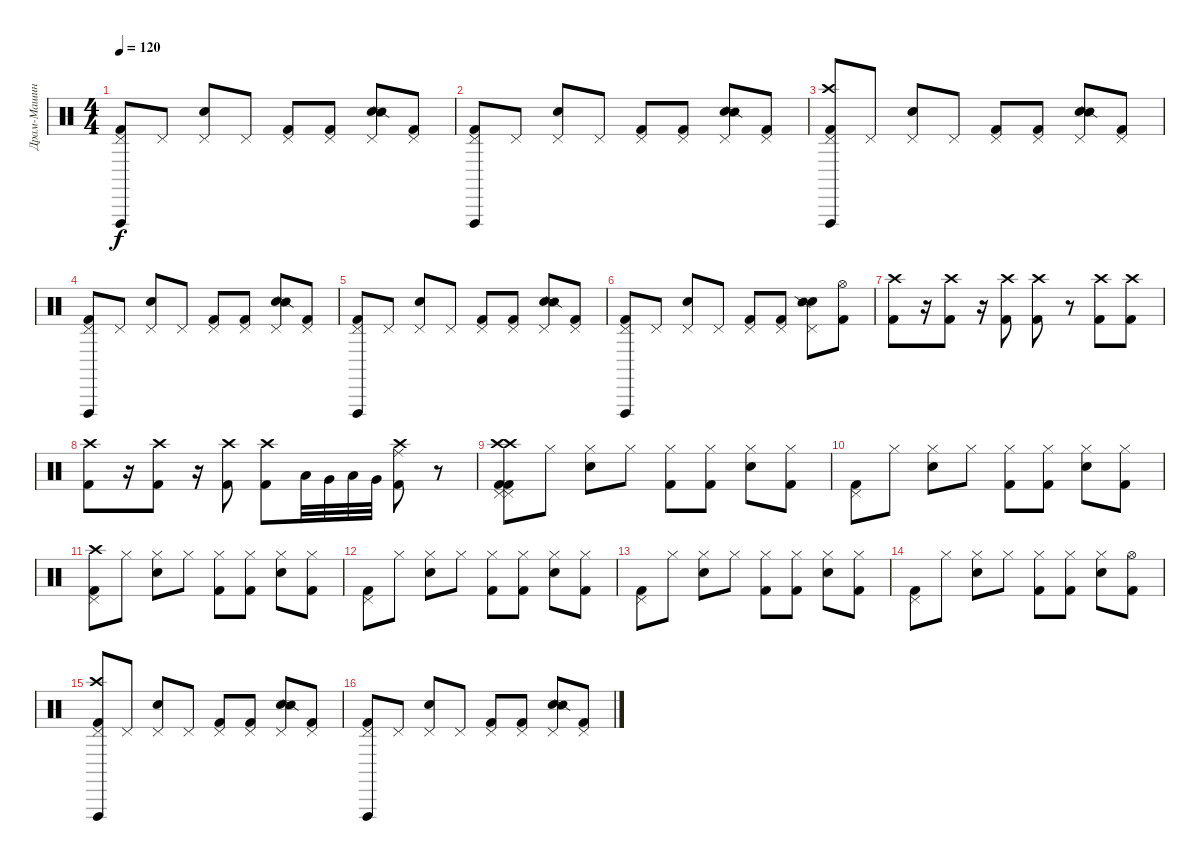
\track ("Драм-Машина" "Драм-Машин") {instrument percussion}
\staff {score}
\articulation defaults
\ts (4 4)
\tempo 120
\clef neutral
\ks c
("Vibraslap (hit)" "Kick (hit) 2" "Pedal Hi-Hat (hit)").8{dy f} "Pedal Hi-Hat (hit)".8 ("Electric Snare (hit)" "Pedal Hi-Hat (hit)").8 "Pedal Hi-Hat (hit)".8 ("Kick (hit) 2" "Pedal Hi-Hat (hit)").8 ("Kick (hit) 2" "Pedal Hi-Hat (hit)").8 ("Electric Snare (hit)" "Snare (side stick) 2" "Pedal Hi-Hat (hit)").8 ("Kick (hit) 2" "Pedal Hi-Hat (hit)").8 |
("Vibraslap (hit)" "Kick (hit) 2" "Pedal Hi-Hat (hit)").8 "Pedal Hi-Hat (hit)".8 ("Electric Snare (hit)" "Pedal Hi-Hat (hit)").8 "Pedal Hi-Hat (hit)".8 ("Kick (hit) 2" "Pedal Hi-Hat (hit)").8 ("Kick (hit) 2" "Pedal Hi-Hat (hit)").8 ("Electric Snare (hit)" "Snare (side stick) 2" "Pedal Hi-Hat (hit)").8 ("Kick (hit) 2" "Pedal Hi-Hat (hit)").8 |
("Crash high (hit)" "Vibraslap (hit)" "Kick (hit) 2" "Pedal Hi-Hat (hit)").8 "Pedal Hi-Hat (hit)".8 ("Electric Snare (hit)" "Pedal Hi-Hat (hit)").8 "Pedal Hi-Hat (hit)".8 ("Kick (hit) 2" "Pedal Hi-Hat (hit)").8 ("Kick (hit) 2" "Pedal Hi-Hat (hit)").8 ("Electric Snare (hit)" "Snare (side stick) 2" "Pedal Hi-Hat (hit)").8 ("Kick (hit) 2" "Pedal Hi-Hat (hit)").8 |
("Vibraslap (hit)" "Kick (hit) 2" "Pedal Hi-Hat (hit)").8 "Pedal Hi-Hat (hit)".8 ("Electric Snare (hit)" "Pedal Hi-Hat (hit)").8 "Pedal Hi-Hat (hit)".8 ("Kick (hit) 2" "Pedal Hi-Hat (hit)").8 ("Kick (hit) 2" "Pedal Hi-Hat (hit)").8 ("Electric Snare (hit)" "Snare (side stick) 2" "Pedal Hi-Hat (hit)").8 ("Kick (hit) 2" "Pedal Hi-Hat (hit)").8 |
("Vibraslap (hit)" "Kick (hit) 2" "Pedal Hi-Hat (hit)").8 "Pedal Hi-Hat (hit)".8 ("Electric Snare (hit)" "Pedal Hi-Hat (hit)").8 "Pedal Hi-Hat (hit)".8 ("Kick (hit) 2" "Pedal Hi-Hat (hit)").8 ("Kick (hit) 2" "Pedal Hi-Hat (hit)").8 ("Electric Snare (hit)" "Snare (side stick) 2" "Pedal Hi-Hat (hit)").8 ("Kick (hit) 2" "Pedal Hi-Hat (hit)").8 |
("Vibraslap (hit)" "Kick (hit) 2" "Pedal Hi-Hat (hit)").8 "Pedal Hi-Hat (hit)".8 ("Electric Snare (hit)" "Pedal Hi-Hat (hit)").8 "Pedal Hi-Hat (hit)".8 ("Kick (hit) 2" "Pedal Hi-Hat (hit)").8 ("Kick (hit) 2" "Pedal Hi-Hat (hit)").8 ("Electric Snare (hit)" "Snare (side stick) 2" "Pedal Hi-Hat (hit)").8 ("Kick (hit) 2" "Hi-Hat (open)").8 |
("Crash high (hit)" "Kick (hit) 2").8 r.16 ("Crash high (hit)" "Kick (hit) 2").8 r.16 ("Crash high (hit)" "Kick (hit) 2").8 ("Crash high (hit)" "Kick (hit) 2").8 r.8 ("Crash high (hit)" "Kick (hit) 2").8 ("Crash high (hit)" "Kick (hit) 2").8 |
("Crash high (hit)" "Kick (hit) 2").8 r.16 ("Crash high (hit)" "Kick (hit) 2").8 r.16 ("Crash high (hit)" "Kick (hit) 2").8 ("Crash high (hit)" "Kick (hit) 2").8 "Low Floor Tom (hit)".32 "Very Low Tom (hit)".32 "Low Floor Tom (hit)".32 "Very Low Tom (hit)".32 ("Ride (middle)" "Crash high (hit)" "Kick (hit) 2").8 r.8 |
("Crash high (hit)" "Crash high (hit)" "Kick (hit) 2" "Pedal Hi-Hat (hit)" "Kick (hit) 2" "Pedal Hi-Hat (hit)").8 "Hi-Hat (closed)".8 ("Electric Snare (hit)" "Hi-Hat (closed)").8 "Hi-Hat (closed)".8 ("Kick (hit) 2" "Hi-Hat (closed)").8 ("Kick (hit) 2" "Hi-Hat (closed)").8 ("Electric Snare (hit)" "Hi-Hat (closed)").8 ("Kick (hit) 2" "Hi-Hat (closed)").8 |
("Kick (hit) 2" "Pedal Hi-Hat (hit)").8 "Hi-Hat (closed)".8 ("Electric Snare (hit)" "Hi-Hat (closed)").8 "Hi-Hat (closed)".8 ("Kick (hit) 2" "Hi-Hat (closed)").8 ("Kick (hit) 2" "Hi-Hat (closed)").8 ("Electric Snare (hit)" "Hi-Hat (closed)").8 ("Kick (hit) 2" "Hi-Hat (closed)").8 |
("Crash high (hit)" "Kick (hit) 2" "Pedal Hi-Hat (hit)").8 "Hi-Hat (closed)".8 ("Electric Snare (hit)" "Hi-Hat (closed)").8 "Hi-Hat (closed)".8 ("Kick (hit) 2" "Hi-Hat (closed)").8 ("Kick (hit) 2" "Hi-Hat (closed)").8 ("Electric Snare (hit)" "Hi-Hat (closed)").8 ("Kick (hit) 2" "Hi-Hat (closed)").8 |
("Kick (hit) 2" "Pedal Hi-Hat (hit)").8 "Hi-Hat (closed)".8 ("Electric Snare (hit)" "Hi-Hat (closed)").8 "Hi-Hat (closed)".8 ("Kick (hit) 2" "Hi-Hat (closed)").8 ("Kick (hit) 2" "Hi-Hat (closed)").8 ("Electric Snare (hit)" "Hi-Hat (closed)").8 ("Kick (hit) 2" "Hi-Hat (closed)").8 |
("Kick (hit) 2" "Pedal Hi-Hat (hit)").8 "Hi-Hat (closed)".8 ("Electric Snare (hit)" "Hi-Hat (closed)").8 "Hi-Hat (closed)".8 ("Kick (hit) 2" "Hi-Hat (closed)").8 ("Kick (hit) 2" "Hi-Hat (closed)").8 ("Electric Snare (hit)" "Hi-Hat (closed)").8 ("Kick (hit) 2" "Hi-Hat (closed)").8 |
("Kick (hit) 2" "Pedal Hi-Hat (hit)").8 "Hi-Hat (closed)".8 ("Electric Snare (hit)" "Hi-Hat (closed)").8 "Hi-Hat (closed)".8 ("Kick (hit) 2" "Hi-Hat (closed)").8 ("Kick (hit) 2" "Hi-Hat (closed)").8 ("Electric Snare (hit)" "Hi-Hat (closed)").8 ("Kick (hit) 2" "Hi-Hat (open)").8 |
("Vibraslap (hit)" "Crash high (hit)" "Kick (hit) 2" "Pedal Hi-Hat (hit)").8 "Pedal Hi-Hat (hit)".8 ("Electric Snare (hit)" "Pedal Hi-Hat (hit)").8 "Pedal Hi-Hat (hit)".8 ("Kick (hit) 2" "Pedal Hi-Hat (hit)").8 ("Kick (hit) 2" "Pedal Hi-Hat (hit)").8 ("Electric Snare (hit)" "Snare (side stick) 2" "Pedal Hi-Hat (hit)").8 ("Kick (hit) 2" "Pedal Hi-Hat (hit)").8 |
("Vibraslap (hit)" "Kick (hit) 2" "Pedal Hi-Hat (hit)").8 "Pedal Hi-Hat (hit)".8 ("Electric Snare (hit)" "Pedal Hi-Hat (hit)").8 "Pedal Hi-Hat (hit)".8 ("Kick (hit) 2" "Pedal Hi-Hat (hit)").8 ("Kick (hit) 2" "Pedal Hi-Hat (hit)").8 ("Electric Snare (hit)" "Snare (side stick) 2" "Pedal Hi-Hat (hit)").8 ("Kick (hit) 2" "Pedal Hi-Hat (hit)").8
